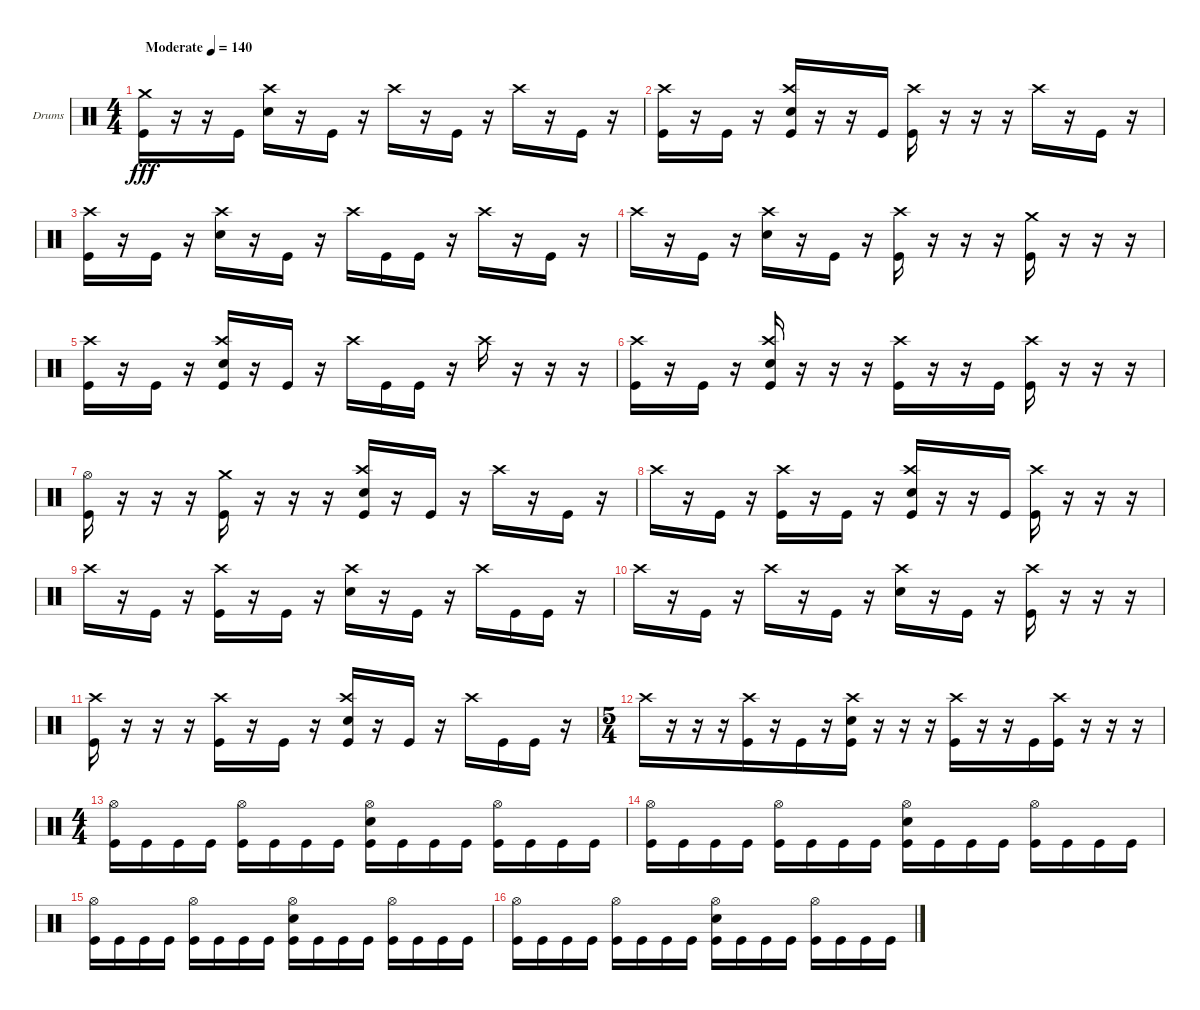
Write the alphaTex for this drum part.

\bracketExtendMode groupsimilarinstruments
\firstSystemTrackNameOrientation horizontal
\otherSystemsTrackNameOrientation horizontal
\track ("Drumkit" "Drums") {instrument percussion}
\staff {score}
\articulation defaults
\ts (4 4)
\beaming (8 2 2 2 2)
\tempo (140 "Moderate")
\clef neutral
\ks c
("Crash medium (hit)" "Kick (hit)").16{dy fff} r.16 r.16 "Kick (hit)".16 ("Crash high (hit)" "Snare (hit) 2").16 r.16 "Kick (hit)".16 r.16 "Crash high (hit)".16 r.16 "Kick (hit)".16 r.16 "Crash high (hit)".16 r.16 "Kick (hit)".16 r.16 |
("Crash high (hit)" "Kick (hit)").16 r.16 "Kick (hit)".16 r.16 ("Crash high (hit)" "Snare (hit) 2" "Kick (hit)").16 r.16 r.16 "Kick (hit)".16 ("Crash high (hit)" "Kick (hit)").16 r.16 r.16 r.16 "Crash high (hit)".16 r.16 "Kick (hit)".16 r.16 |
("Crash high (hit)" "Kick (hit)").16 r.16 "Kick (hit)".16 r.16 ("Crash high (hit)" "Snare (hit) 2").16 r.16 "Kick (hit)".16 r.16 "Crash high (hit)".16 "Kick (hit)".16 "Kick (hit)".16 r.16 "Crash high (hit)".16 r.16 "Kick (hit)".16 r.16 |
"Crash high (hit)".16 r.16 "Kick (hit)".16 r.16 ("Crash high (hit)" "Snare (hit) 2").16 r.16 "Kick (hit)".16 r.16 ("Crash high (hit)" "Kick (hit)").16 r.16 r.16 r.16 ("Crash medium (hit)" "Kick (hit)").16 r.16 r.16 r.16 |
("Crash high (hit)" "Kick (hit)").16 r.16 "Kick (hit)".16 r.16 ("Crash high (hit)" "Snare (hit) 2" "Kick (hit)").16 r.16 "Kick (hit)".16 r.16 "Crash high (hit)".16 "Kick (hit)".16 "Kick (hit)".16 r.16 "Crash high (hit)".16 r.16 r.16 r.16 |
("Crash high (hit)" "Kick (hit)").16 r.16 "Kick (hit)".16 r.16 ("Crash high (hit)" "Snare (hit) 2" "Kick (hit)").16 r.16 r.16 r.16 ("Crash high (hit)" "Kick (hit)").16 r.16 r.16 "Kick (hit)".16 ("Crash high (hit)" "Kick (hit)").16 r.16 r.16 r.16 |
("Hi-Hat (open)" "Kick (hit)").16 r.16 r.16 r.16 ("Crash medium (hit)" "Kick (hit)").16 r.16 r.16 r.16 ("Crash high (hit)" "Snare (hit) 2" "Kick (hit)").16 r.16 "Kick (hit)".16 r.16 "Crash high (hit)".16 r.16 "Kick (hit)".16 r.16 |
"Crash high (hit)".16 r.16 "Kick (hit)".16 r.16 ("Crash high (hit)" "Kick (hit)").16 r.16 "Kick (hit)".16 r.16 ("Crash high (hit)" "Snare (hit) 2" "Kick (hit)").16 r.16 r.16 "Kick (hit)".16 ("Crash high (hit)" "Kick (hit)").16 r.16 r.16 r.16 |
"Crash high (hit)".16 r.16 "Kick (hit)".16 r.16 ("Crash high (hit)" "Kick (hit)").16 r.16 "Kick (hit)".16 r.16 ("Crash high (hit)" "Snare (hit) 2").16 r.16 "Kick (hit)".16 r.16 "Crash high (hit)".16 "Kick (hit)".16 "Kick (hit)".16 r.16 |
"Crash high (hit)".16 r.16 "Kick (hit)".16 r.16 "Crash high (hit)".16 r.16 "Kick (hit)".16 r.16 ("Crash high (hit)" "Snare (hit) 2").16 r.16 "Kick (hit)".16 r.16 ("Crash high (hit)" "Kick (hit)").16 r.16 r.16 r.16 |
("Crash high (hit)" "Kick (hit)").16 r.16 r.16 r.16 ("Crash high (hit)" "Kick (hit)").16 r.16 "Kick (hit)".16 r.16 ("Crash high (hit)" "Snare (hit) 2" "Kick (hit)").16 r.16 "Kick (hit)".16 r.16 "Crash high (hit)".16 "Kick (hit)".16 "Kick (hit)".16 r.16 |
\ts (5 4)
\beaming (8 6 4)
"Crash high (hit)".16 r.16 r.16 r.16 ("Crash high (hit)" "Kick (hit)").16 r.16 "Kick (hit)".16 r.16 ("Crash high (hit)" "Snare (hit) 2" "Kick (hit)").16 r.16 r.16 r.16 ("Crash high (hit)" "Kick (hit)").16 r.16 r.16 "Kick (hit)".16 ("Crash high (hit)" "Kick (hit)").16 r.16 r.16 r.16 |
\ts (4 4)
\beaming (8 2 2 2 2)
("Hi-Hat (open)" "Kick (hit)").16 "Kick (hit)".16 "Kick (hit)".16 "Kick (hit)".16 ("Hi-Hat (open)" "Kick (hit)").16 "Kick (hit)".16 "Kick (hit)".16 "Kick (hit)".16 ("Hi-Hat (open)" "Snare (hit) 2" "Kick (hit)").16 "Kick (hit)".16 "Kick (hit)".16 "Kick (hit)".16 ("Hi-Hat (open)" "Kick (hit)").16 "Kick (hit)".16 "Kick (hit)".16 "Kick (hit)".16 |
("Hi-Hat (open)" "Kick (hit)").16 "Kick (hit)".16 "Kick (hit)".16 "Kick (hit)".16 ("Hi-Hat (open)" "Kick (hit)").16 "Kick (hit)".16 "Kick (hit)".16 "Kick (hit)".16 ("Hi-Hat (open)" "Snare (hit) 2" "Kick (hit)").16 "Kick (hit)".16 "Kick (hit)".16 "Kick (hit)".16 ("Hi-Hat (open)" "Kick (hit)").16 "Kick (hit)".16 "Kick (hit)".16 "Kick (hit)".16 |
("Hi-Hat (open)" "Kick (hit)").16 "Kick (hit)".16 "Kick (hit)".16 "Kick (hit)".16 ("Hi-Hat (open)" "Kick (hit)").16 "Kick (hit)".16 "Kick (hit)".16 "Kick (hit)".16 ("Hi-Hat (open)" "Snare (hit) 2" "Kick (hit)").16 "Kick (hit)".16 "Kick (hit)".16 "Kick (hit)".16 ("Hi-Hat (open)" "Kick (hit)").16 "Kick (hit)".16 "Kick (hit)".16 "Kick (hit)".16 |
("Hi-Hat (open)" "Kick (hit)").16 "Kick (hit)".16 "Kick (hit)".16 "Kick (hit)".16 ("Hi-Hat (open)" "Kick (hit)").16 "Kick (hit)".16 "Kick (hit)".16 "Kick (hit)".16 ("Hi-Hat (open)" "Snare (hit) 2" "Kick (hit)").16 "Kick (hit)".16 "Kick (hit)".16 "Kick (hit)".16 ("Hi-Hat (open)" "Kick (hit)").16 "Kick (hit)".16 "Kick (hit)".16 "Kick (hit)".16
